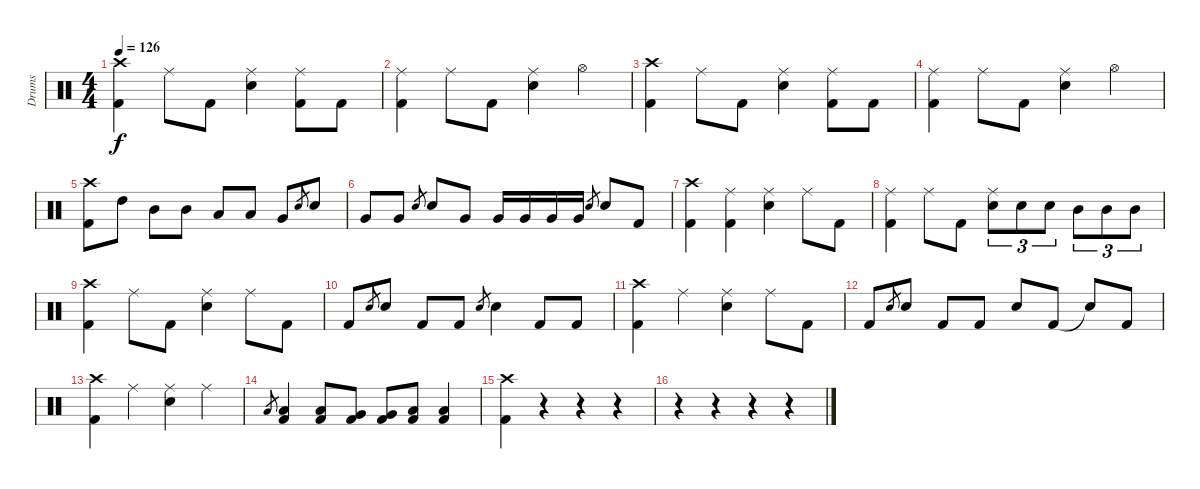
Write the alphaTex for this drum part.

\track ("Drums" "Drums") {instrument percussion}
\staff {score}
\articulation defaults
\ts (4 4)
\tempo 126
\clef neutral
\ks c
("Crash high (hit)" "Kick (hit) 2").4{dy f} "Ride (middle)".8 "Kick (hit) 2".8 ("Ride (middle)" "Electric Snare (hit)").4 ("Ride (middle)" "Kick (hit) 2").8 "Kick (hit) 2".8 |
("Ride (middle)" "Kick (hit) 2").4 "Ride (middle)".8 "Kick (hit) 2".8 ("Ride (middle)" "Electric Snare (hit)").4 "Hi-Hat (open)".4 |
("Crash high (hit)" "Kick (hit) 2").4 "Ride (middle)".8 "Kick (hit) 2".8 ("Ride (middle)" "Electric Snare (hit)").4 ("Ride (middle)" "Kick (hit) 2").8 "Kick (hit) 2".8 |
("Ride (middle)" "Kick (hit) 2").4 "Ride (middle)".8 "Kick (hit) 2".8 ("Ride (middle)" "Electric Snare (hit)").4 "Hi-Hat (open)".4 |
("Crash high (hit)" "Kick (hit) 2").8 "High Tom (hit)".8 "Mid Tom (hit)".8 "Mid Tom (hit)".8 "Low Tom (hit)".8 "Low Tom (hit)".8 "Very Low Tom (hit)".8 "Electric Snare (hit)".8{gr} "Electric Snare (hit)".8 |
"Very Low Tom (hit)".8 "Very Low Tom (hit)".8 "Electric Snare (hit)".8{gr} "Electric Snare (hit)".8 "Very Low Tom (hit)".8 "Very Low Tom (hit)".16 "Very Low Tom (hit)".16 "Very Low Tom (hit)".16 "Very Low Tom (hit)".16 "Electric Snare (hit)".8{gr} "Electric Snare (hit)".8 "Kick (hit) 2".8 |
("Crash high (hit)" "Kick (hit) 2").4 ("Ride (middle)" "Kick (hit) 2").4 ("Ride (middle)" "Electric Snare (hit)").4 "Ride (middle)".8 "Kick (hit) 2".8 |
("Ride (middle)" "Kick (hit) 2").4 "Ride (middle)".8 "Kick (hit) 2".8 ("Ride (middle)" "Electric Snare (hit)").8{tu (3 2)} "Electric Snare (hit)".8{tu (3 2)} "Electric Snare (hit)".8{tu (3 2)} "Mid Tom (hit)".8{tu (3 2)} "Mid Tom (hit)".8{tu (3 2)} "Mid Tom (hit)".8{tu (3 2)} |
("Crash high (hit)" "Kick (hit) 2").4 "Ride (middle)".8 "Kick (hit) 2".8 ("Ride (middle)" "Electric Snare (hit)").4 "Ride (middle)".8 "Kick (hit) 2".8 |
"Kick (hit) 2".8 "Electric Snare (hit)".8{gr} "Electric Snare (hit)".8 "Kick (hit) 2".8 "Kick (hit) 2".8 "Electric Snare (hit)".8{gr} "Electric Snare (hit)".4 "Kick (hit) 2".8 "Kick (hit) 2".8 |
("Crash high (hit)" "Kick (hit) 2").4 "Ride (middle)".4 ("Ride (middle)" "Electric Snare (hit)").4 "Ride (middle)".8 "Kick (hit) 2".8 |
"Kick (hit) 2".8 "Electric Snare (hit)".8{gr} "Electric Snare (hit)".8 "Kick (hit) 2".8 "Kick (hit) 2".8 "Electric Snare (hit)".8 "Kick (hit) 2".8 "Snare (hit)"{t}.8 "Kick (hit) 2".8 |
("Crash high (hit)" "Kick (hit) 2").4 "Ride (middle)".4 ("Ride (middle)" "Electric Snare (hit)").4 "Ride (middle)".4 |
"Low Tom (hit)".8{gr} ("Low Tom (hit)" "Kick (hit) 2").4 ("Low Tom (hit)" "Kick (hit) 2").8 ("Very Low Tom (hit)" "Kick (hit) 2").8 ("Very Low Tom (hit)" "Kick (hit) 2").8 ("Low Floor Tom (hit)" "Kick (hit) 2").8 ("Low Floor Tom (hit)" "Kick (hit) 2").4 |
("Crash high (hit)" "Kick (hit) 2").4 r.4 r.4 r.4 |
r.4 r.4 r.4 r.4
